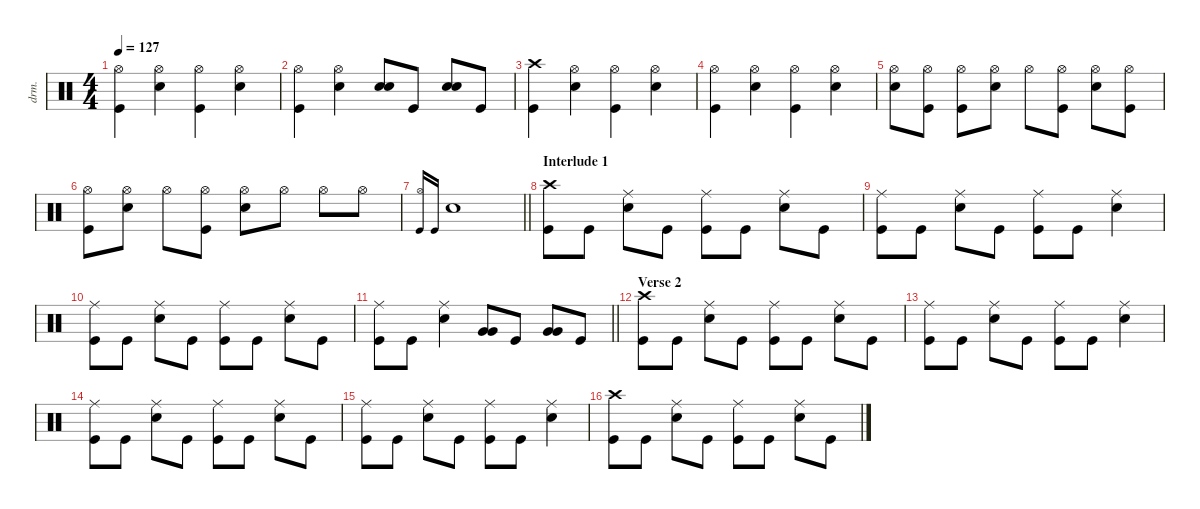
\defaultSystemsLayout 4
\hideDynamics
\bracketExtendMode nobrackets
\otherSystemsTrackNameOrientation horizontal
\track ("Drums" "drm.") {defaultSystemsLayout 4 instrument percussion}
\staff {score}
\articulation defaults
\ts (4 4)
\tempo 127
\clef neutral
\ks c
("Hi-Hat (open)" "Kick (hit)").4{dy f beam Down} ("Hi-Hat (open)" "Snare (hit) 2").4{beam Down} ("Hi-Hat (open)" "Kick (hit)").4{beam Down} ("Hi-Hat (open)" "Snare (hit) 2").4{beam Down} |
("Hi-Hat (open)" "Kick (hit)").4{beam Down} ("Hi-Hat (open)" "Snare (hit) 2").4{beam Down} ("Snare (hit) 2" "Snare (hit) 2").8{beam Up} "Kick (hit)".8{beam Up} ("Snare (hit) 2" "Snare (hit) 2").8{beam Up} "Kick (hit)".8{beam Up} |
("Crash high (hit)" "Kick (hit)").4{beam Down} ("Hi-Hat (open)" "Snare (hit) 2").4{beam Down} ("Hi-Hat (open)" "Kick (hit)").4{beam Down} ("Hi-Hat (open)" "Snare (hit) 2").4{beam Down} |
("Hi-Hat (open)" "Kick (hit)").4{beam Down} ("Hi-Hat (open)" "Snare (hit) 2").4{beam Down} ("Hi-Hat (open)" "Kick (hit)").4{beam Down} ("Hi-Hat (open)" "Snare (hit) 2").4{beam Down} |
("Hi-Hat (open)" "Snare (hit) 2").8{beam Down} ("Hi-Hat (open)" "Kick (hit)").8{beam Down} ("Hi-Hat (open)" "Kick (hit)").8{beam Down} ("Hi-Hat (open)" "Snare (hit) 2").8{beam Down} "Hi-Hat (open)".8{beam Down} ("Hi-Hat (open)" "Kick (hit)").8{beam Down} ("Hi-Hat (open)" "Snare (hit) 2").8{beam Down} ("Hi-Hat (open)" "Kick (hit)").8{beam Down} |
("Hi-Hat (open)" "Kick (hit)").8{beam Down} ("Hi-Hat (open)" "Snare (hit) 2").8{beam Down} "Hi-Hat (open)".8{beam Down} ("Hi-Hat (open)" "Kick (hit)").8{beam Down} ("Hi-Hat (open)" "Snare (hit) 2").8{beam Down} "Hi-Hat (open)".8{beam Down} "Hi-Hat (open)".8{beam Down} "Hi-Hat (open)".8{beam Down} |
\barLineRight lightlight
("Hi-Hat (open)" "Kick (hit)").16{gr onbeat beam Up} "Kick (hit)".16{gr onbeat beam Up} "Snare (hit) 2".1{beam Down} |
\section ("" "Interlude 1")
("Crash high (hit)" "Kick (hit)").8{beam Down} "Kick (hit)".8{beam Down} ("Ride (middle)" "Snare (hit) 2").8{beam Down} "Kick (hit)".8{beam Down} ("Ride (middle)" "Kick (hit)").8{beam Down} "Kick (hit)".8{beam Down} ("Ride (middle)" "Snare (hit) 2").8{beam Down} "Kick (hit)".8{beam Down} |
("Ride (middle)" "Kick (hit)").8{beam Down} "Kick (hit)".8{beam Down} ("Ride (middle)" "Snare (hit) 2").8{beam Down} "Kick (hit)".8{beam Down} ("Ride (middle)" "Kick (hit)").8{beam Down} "Kick (hit)".8{beam Down} ("Ride (middle)" "Snare (hit) 2").4{beam Down} |
("Ride (middle)" "Kick (hit)").8{beam Down} "Kick (hit)".8{beam Down} ("Ride (middle)" "Snare (hit) 2").8{beam Down} "Kick (hit)".8{beam Down} ("Ride (middle)" "Kick (hit)").8{beam Down} "Kick (hit)".8{beam Down} ("Ride (middle)" "Snare (hit) 2").8{beam Down} "Kick (hit)".8{beam Down} |
\barLineRight lightlight
("Ride (middle)" "Kick (hit)").8{beam Down} "Kick (hit)".8{beam Down} ("Ride (middle)" "Snare (hit) 2").4{beam Down} ("Very Low Tom (hit)" "Very Low Tom (hit)").8{beam Up} "Kick (hit)".8{beam Up} ("Very Low Tom (hit)" "Very Low Tom (hit)").8{beam Up} "Kick (hit)".8{beam Up} |
\section ("" "Verse 2")
("Crash high (hit)" "Kick (hit)").8{beam Down} "Kick (hit)".8{beam Down} ("Ride (middle)" "Snare (hit) 2").8{beam Down} "Kick (hit)".8{beam Down} ("Ride (middle)" "Kick (hit)").8{beam Down} "Kick (hit)".8{beam Down} ("Ride (middle)" "Snare (hit) 2").8{beam Down} "Kick (hit)".8{beam Down} |
("Ride (middle)" "Kick (hit)").8{beam Down} "Kick (hit)".8{beam Down} ("Ride (middle)" "Snare (hit) 2").8{beam Down} "Kick (hit)".8{beam Down} ("Ride (middle)" "Kick (hit)").8{beam Down} "Kick (hit)".8{beam Down} ("Ride (middle)" "Snare (hit) 2").4{beam Down} |
("Ride (middle)" "Kick (hit)").8{beam Down} "Kick (hit)".8{beam Down} ("Ride (middle)" "Snare (hit) 2").8{beam Down} "Kick (hit)".8{beam Down} ("Ride (middle)" "Kick (hit)").8{beam Down} "Kick (hit)".8{beam Down} ("Ride (middle)" "Snare (hit) 2").8{beam Down} "Kick (hit)".8{beam Down} |
("Ride (middle)" "Kick (hit)").8{beam Down} "Kick (hit)".8{beam Down} ("Ride (middle)" "Snare (hit) 2").8{beam Down} "Kick (hit)".8{beam Down} ("Ride (middle)" "Kick (hit)").8{beam Down} "Kick (hit)".8{beam Down} ("Ride (middle)" "Snare (hit) 2").4{beam Down} |
("Crash high (hit)" "Kick (hit)").8{beam Down} "Kick (hit)".8{beam Down} ("Ride (middle)" "Snare (hit) 2").8{beam Down} "Kick (hit)".8{beam Down} ("Ride (middle)" "Kick (hit)").8{beam Down} "Kick (hit)".8{beam Down} ("Ride (middle)" "Snare (hit) 2").8{beam Down} "Kick (hit)".8{beam Down}
